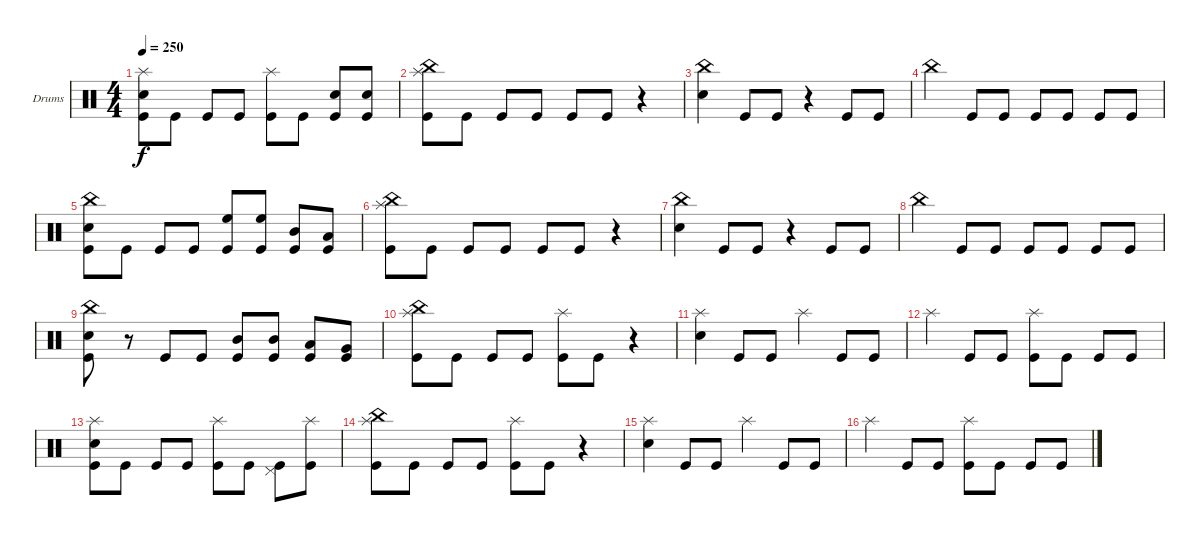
\defaultSystemsLayout 4
\bracketExtendMode groupsimilarinstruments
\firstSystemTrackNameOrientation horizontal
\otherSystemsTrackNameOrientation horizontal
\track ("Drumkit" "Drums") {instrument percussion}
\staff {score}
\articulation defaults
\ts (4 4)
\tempo 250
\clef neutral
\ks c
("Kick (hit)" "Snare (hit) 2" "Splash (hit)").8{dy f} "Kick (hit)".8 "Kick (hit)".8 "Kick (hit)".8 ("Kick (hit)" "Splash (hit)").8 "Kick (hit)".8 ("Kick (hit)" "Snare (hit) 2").8 ("Kick (hit)" "Snare (hit) 2").8 |
("Kick (hit)" "China (hit)" "Splash (hit)").8 "Kick (hit)".8 "Kick (hit)".8 "Kick (hit)".8 "Kick (hit)".8 "Kick (hit)".8 r.4 |
("Snare (hit) 2" "China (hit)").4 "Kick (hit)".8 "Kick (hit)".8 r.4 "Kick (hit)".8 "Kick (hit)".8 |
"China (hit)".4 "Kick (hit)".8 "Kick (hit)".8 "Kick (hit)".8 "Kick (hit)".8 "Kick (hit)".8 "Kick (hit)".8 |
("Kick (hit)" "Snare (hit) 2" "China (hit)").8 "Kick (hit)".8 "Kick (hit)".8 "Kick (hit)".8 ("Kick (hit)" "High Floor Tom (hit)").8 ("Kick (hit)" "High Floor Tom (hit)").8 ("Kick (hit)" "Mid Tom (hit)").8 ("Kick (hit)" "Low Tom (hit)").8 |
("Kick (hit)" "China (hit)" "Splash (hit)").8 "Kick (hit)".8 "Kick (hit)".8 "Kick (hit)".8 "Kick (hit)".8 "Kick (hit)".8 r.4 |
("Snare (hit) 2" "China (hit)").4 "Kick (hit)".8 "Kick (hit)".8 r.4 "Kick (hit)".8 "Kick (hit)".8 |
"China (hit)".4 "Kick (hit)".8 "Kick (hit)".8 "Kick (hit)".8 "Kick (hit)".8 "Kick (hit)".8 "Kick (hit)".8 |
("Kick (hit)" "Snare (hit) 2" "China (hit)").8 r.8 "Kick (hit)".8 "Kick (hit)".8 ("Kick (hit)" "Mid Tom (hit)").8 ("Kick (hit)" "Mid Tom (hit)").8 ("Kick (hit)" "Low Tom (hit)").8 ("Kick (hit)" "Very Low Tom (hit)").8 |
("Kick (hit)" "China (hit)" "Splash (hit)").8 "Kick (hit)".8 "Kick (hit)".8 "Kick (hit)".8 ("Kick (hit)" "Splash (hit)").8 "Kick (hit)".8 r.4 |
("Splash (hit)" "Snare (hit) 2").4 "Kick (hit)".8 "Kick (hit)".8 "Splash (hit)".4 "Kick (hit)".8 "Kick (hit)".8 |
"Splash (hit)".4 "Kick (hit)".8 "Kick (hit)".8 ("Kick (hit)" "Splash (hit)").8 "Kick (hit)".8 "Kick (hit)".8 "Kick (hit)".8 |
("Kick (hit)" "Snare (hit) 2" "Splash (hit)").8 "Kick (hit)".8 "Kick (hit)".8 "Kick (hit)".8 ("Kick (hit)" "Splash (hit)").8 "Kick (hit)".8 ("Kick (hit)" "Pedal Hi-Hat (hit)").8 ("Kick (hit)" "Splash (hit)").8 |
("Kick (hit)" "China (hit)" "Splash (hit)").8 "Kick (hit)".8 "Kick (hit)".8 "Kick (hit)".8 ("Kick (hit)" "Splash (hit)").8 "Kick (hit)".8 r.4 |
("Splash (hit)" "Snare (hit) 2").4 "Kick (hit)".8 "Kick (hit)".8 "Splash (hit)".4 "Kick (hit)".8 "Kick (hit)".8 |
"Splash (hit)".4 "Kick (hit)".8 "Kick (hit)".8 ("Kick (hit)" "Splash (hit)").8 "Kick (hit)".8 "Kick (hit)".8 "Kick (hit)".8
